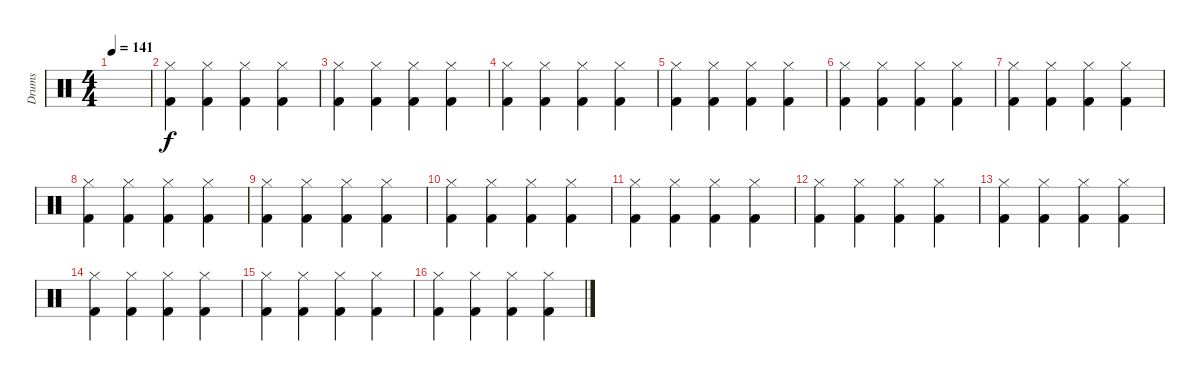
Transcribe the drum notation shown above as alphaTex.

\track ("Drums" "Drums") {instrument percussion}
\staff {score}
\articulation defaults
\ts (4 4)
\tempo 141
\clef neutral
\ks c
|
("Hi-Hat (closed)" "Kick (hit) 2").4 ("Hi-Hat (closed)" "Kick (hit) 2").4 ("Hi-Hat (closed)" "Kick (hit) 2").4 ("Hi-Hat (closed)" "Kick (hit) 2").4 |
("Hi-Hat (closed)" "Kick (hit) 2").4 ("Hi-Hat (closed)" "Kick (hit) 2").4 ("Hi-Hat (closed)" "Kick (hit) 2").4 ("Hi-Hat (closed)" "Kick (hit) 2").4 |
("Hi-Hat (closed)" "Kick (hit) 2").4 ("Hi-Hat (closed)" "Kick (hit) 2").4 ("Hi-Hat (closed)" "Kick (hit) 2").4 ("Hi-Hat (closed)" "Kick (hit) 2").4 |
("Hi-Hat (closed)" "Kick (hit) 2").4 ("Hi-Hat (closed)" "Kick (hit) 2").4 ("Hi-Hat (closed)" "Kick (hit) 2").4 ("Hi-Hat (closed)" "Kick (hit) 2").4 |
("Hi-Hat (closed)" "Kick (hit) 2").4 ("Hi-Hat (closed)" "Kick (hit) 2").4 ("Hi-Hat (closed)" "Kick (hit) 2").4 ("Hi-Hat (closed)" "Kick (hit) 2").4 |
("Hi-Hat (closed)" "Kick (hit) 2").4 ("Hi-Hat (closed)" "Kick (hit) 2").4 ("Hi-Hat (closed)" "Kick (hit) 2").4 ("Hi-Hat (closed)" "Kick (hit) 2").4 |
("Hi-Hat (closed)" "Kick (hit) 2").4 ("Hi-Hat (closed)" "Kick (hit) 2").4 ("Hi-Hat (closed)" "Kick (hit) 2").4 ("Hi-Hat (closed)" "Kick (hit) 2").4 |
("Hi-Hat (closed)" "Kick (hit) 2").4 ("Hi-Hat (closed)" "Kick (hit) 2").4 ("Hi-Hat (closed)" "Kick (hit) 2").4 ("Hi-Hat (closed)" "Kick (hit) 2").4 |
("Hi-Hat (closed)" "Kick (hit) 2").4 ("Hi-Hat (closed)" "Kick (hit) 2").4 ("Hi-Hat (closed)" "Kick (hit) 2").4 ("Hi-Hat (closed)" "Kick (hit) 2").4 |
("Hi-Hat (closed)" "Kick (hit) 2").4 ("Hi-Hat (closed)" "Kick (hit) 2").4 ("Hi-Hat (closed)" "Kick (hit) 2").4 ("Hi-Hat (closed)" "Kick (hit) 2").4 |
("Hi-Hat (closed)" "Kick (hit) 2").4 ("Hi-Hat (closed)" "Kick (hit) 2").4 ("Hi-Hat (closed)" "Kick (hit) 2").4 ("Hi-Hat (closed)" "Kick (hit) 2").4 |
("Hi-Hat (closed)" "Kick (hit) 2").4 ("Hi-Hat (closed)" "Kick (hit) 2").4 ("Hi-Hat (closed)" "Kick (hit) 2").4 ("Hi-Hat (closed)" "Kick (hit) 2").4 |
("Hi-Hat (closed)" "Kick (hit) 2").4 ("Hi-Hat (closed)" "Kick (hit) 2").4 ("Hi-Hat (closed)" "Kick (hit) 2").4 ("Hi-Hat (closed)" "Kick (hit) 2").4 |
("Hi-Hat (closed)" "Kick (hit) 2").4 ("Hi-Hat (closed)" "Kick (hit) 2").4 ("Hi-Hat (closed)" "Kick (hit) 2").4 ("Hi-Hat (closed)" "Kick (hit) 2").4 |
("Hi-Hat (closed)" "Kick (hit) 2").4 ("Hi-Hat (closed)" "Kick (hit) 2").4 ("Hi-Hat (closed)" "Kick (hit) 2").4 ("Hi-Hat (closed)" "Kick (hit) 2").4
